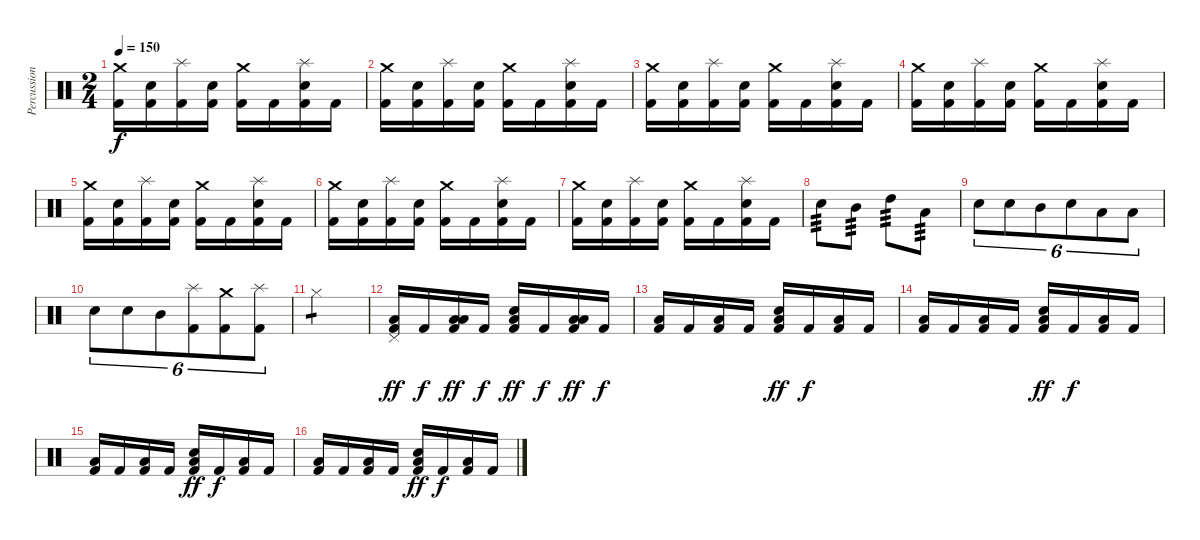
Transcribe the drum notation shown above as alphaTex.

\track ("Percussion" "Percussion") {instrument percussion}
\staff {score}
\articulation defaults
\ts (2 4)
\tempo 150
\clef neutral
\ks c
("Kick (hit) 2" "Crash medium (hit)").16{dy f} ("Kick (hit) 2" "Snare (hit) 2").16 ("Kick (hit) 2" "Splash (hit)").16 ("Kick (hit) 2" "Snare (hit) 2").16 ("Kick (hit) 2" "Crash medium (hit)").16 "Kick (hit) 2".16 ("Kick (hit) 2" "Snare (hit) 2" "Splash (hit)").16 "Kick (hit) 2".16 |
("Kick (hit) 2" "Crash medium (hit)").16 ("Kick (hit) 2" "Snare (hit) 2").16 ("Kick (hit) 2" "Splash (hit)").16 ("Kick (hit) 2" "Snare (hit) 2").16 ("Kick (hit) 2" "Crash medium (hit)").16 "Kick (hit) 2".16 ("Kick (hit) 2" "Snare (hit) 2" "Splash (hit)").16 "Kick (hit) 2".16 |
("Kick (hit) 2" "Crash medium (hit)").16 ("Kick (hit) 2" "Snare (hit) 2").16 ("Kick (hit) 2" "Splash (hit)").16 ("Kick (hit) 2" "Snare (hit) 2").16 ("Kick (hit) 2" "Crash medium (hit)").16 "Kick (hit) 2".16 ("Kick (hit) 2" "Snare (hit) 2" "Splash (hit)").16 "Kick (hit) 2".16 |
("Kick (hit) 2" "Crash medium (hit)").16 ("Kick (hit) 2" "Snare (hit) 2").16 ("Kick (hit) 2" "Splash (hit)").16 ("Kick (hit) 2" "Snare (hit) 2").16 ("Kick (hit) 2" "Crash medium (hit)").16 "Kick (hit) 2".16 ("Kick (hit) 2" "Snare (hit) 2" "Splash (hit)").16 "Kick (hit) 2".16 |
("Kick (hit) 2" "Crash medium (hit)").16 ("Kick (hit) 2" "Snare (hit) 2").16 ("Kick (hit) 2" "Splash (hit)").16 ("Kick (hit) 2" "Snare (hit) 2").16 ("Kick (hit) 2" "Crash medium (hit)").16 "Kick (hit) 2".16 ("Kick (hit) 2" "Snare (hit) 2" "Splash (hit)").16 "Kick (hit) 2".16 |
("Kick (hit) 2" "Crash medium (hit)").16 ("Kick (hit) 2" "Snare (hit) 2").16 ("Kick (hit) 2" "Splash (hit)").16 ("Kick (hit) 2" "Snare (hit) 2").16 ("Kick (hit) 2" "Crash medium (hit)").16 "Kick (hit) 2".16 ("Kick (hit) 2" "Snare (hit) 2" "Splash (hit)").16 "Kick (hit) 2".16 |
("Kick (hit) 2" "Crash medium (hit)").16 ("Kick (hit) 2" "Snare (hit) 2").16 ("Kick (hit) 2" "Splash (hit)").16 ("Kick (hit) 2" "Snare (hit) 2").16 ("Kick (hit) 2" "Crash medium (hit)").16 "Kick (hit) 2".16 ("Kick (hit) 2" "Snare (hit) 2" "Splash (hit)").16 "Kick (hit) 2".16 |
"Snare (hit) 2".8{tp 3} "Mid Tom (hit)".8{tp 3} "High Tom (hit)".8{tp 3} "Low Tom (hit)".8{tp 3} |
"Snare (hit) 2".8{tu (6 4)} "Snare (hit) 2".8{tu (6 4)} "Mid Tom (hit)".8{tu (6 4)} "Snare (hit) 2".8{tu (6 4)} "Low Tom (hit)".8{tu (6 4)} "Low Tom (hit)".8{tu (6 4)} |
"Snare (hit) 2".8{tu (6 4)} "Snare (hit) 2".8{tu (6 4)} "Mid Tom (hit)".8{tu (6 4)} ("Kick (hit) 2" "Splash (hit)").8{tu (6 4)} ("Kick (hit) 2" "Crash medium (hit)").8{tu (6 4)} ("Kick (hit) 2" "Splash (hit)").8{tu (6 4)} |
"Hi-Hat (closed)".2{tp 1} |
("Kick (hit) 2" "Pedal Hi-Hat (hit)" "Low Tom (hit)").16{dy ff} "Kick (hit) 2".16{dy f} ("Kick (hit) 2" "Low Tom (hit)" "Low Tom (hit)").16{dy ff} "Kick (hit) 2".16{dy f} ("Kick (hit) 2" "Snare (hit) 2" "Low Tom (hit)").16{dy ff} "Kick (hit) 2".16{dy f} ("Kick (hit) 2" "Low Tom (hit)" "Low Tom (hit)").16{dy ff} "Kick (hit) 2".16{dy f} |
("Kick (hit) 2" "Low Tom (hit)").16 "Kick (hit) 2".16 ("Kick (hit) 2" "Low Tom (hit)").16 "Kick (hit) 2".16 ("Kick (hit) 2" "Snare (hit) 2" "Low Tom (hit)").16{dy ff} "Kick (hit) 2".16{dy f} ("Kick (hit) 2" "Low Tom (hit)").16 "Kick (hit) 2".16 |
("Kick (hit) 2" "Low Tom (hit)").16 "Kick (hit) 2".16 ("Kick (hit) 2" "Low Tom (hit)").16 "Kick (hit) 2".16 ("Kick (hit) 2" "Snare (hit) 2" "Low Tom (hit)").16{dy ff} "Kick (hit) 2".16{dy f} ("Kick (hit) 2" "Low Tom (hit)").16 "Kick (hit) 2".16 |
("Kick (hit) 2" "Low Tom (hit)").16 "Kick (hit) 2".16 ("Kick (hit) 2" "Low Tom (hit)").16 "Kick (hit) 2".16 ("Kick (hit) 2" "Snare (hit) 2" "Low Tom (hit)").16{dy ff} "Kick (hit) 2".16{dy f} ("Kick (hit) 2" "Low Tom (hit)").16 "Kick (hit) 2".16 |
("Kick (hit) 2" "Low Tom (hit)").16 "Kick (hit) 2".16 ("Kick (hit) 2" "Low Tom (hit)").16 "Kick (hit) 2".16 ("Kick (hit) 2" "Snare (hit) 2" "Low Tom (hit)").16{dy ff} "Kick (hit) 2".16{dy f} ("Kick (hit) 2" "Low Tom (hit)").16 "Kick (hit) 2".16
